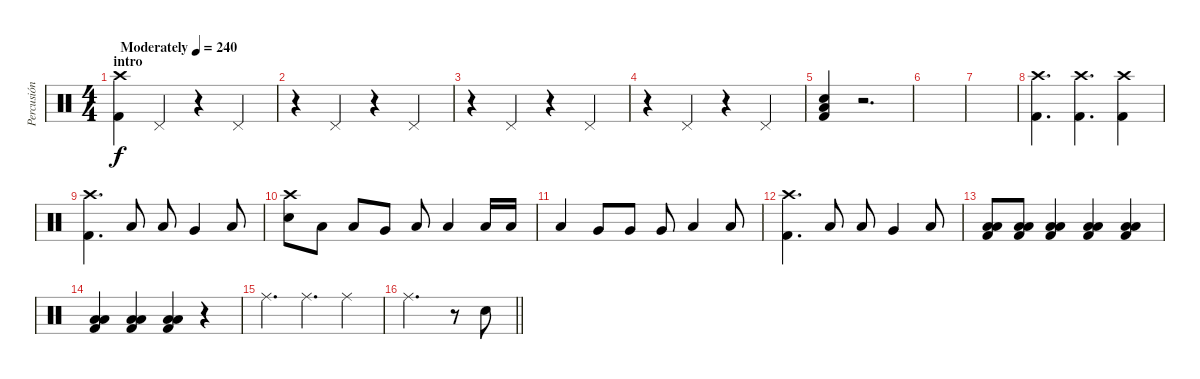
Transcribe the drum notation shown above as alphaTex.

\track ("Percusión" "Percusión") {instrument percussion}
\staff {score}
\articulation defaults
\ts (4 4)
\section ("" "intro")
\tempo (240 "Moderately")
\clef neutral
\ks c
("Crash high (hit)" "Kick (hit) 2").4{dy f} "Pedal Hi-Hat (hit)".4 r.4 "Pedal Hi-Hat (hit)".4 |
r.4 "Pedal Hi-Hat (hit)".4 r.4 "Pedal Hi-Hat (hit)".4 |
r.4 "Pedal Hi-Hat (hit)".4 r.4 "Pedal Hi-Hat (hit)".4 |
r.4 "Pedal Hi-Hat (hit)".4 r.4 "Pedal Hi-Hat (hit)".4 |
("Electric Snare (hit)" "Low Floor Tom (hit)" "Kick (hit) 2").4 r.2{d} |
|
|
("Crash high (hit)" "Kick (hit) 2").4{d} ("Crash high (hit)" "Kick (hit) 2").4{d} ("Crash high (hit)" "Kick (hit) 2").4 |
("Crash high (hit)" "Kick (hit) 2").4{d} "Low Tom (hit)".8 "Low Tom (hit)".8 "Very Low Tom (hit)".4 "Low Floor Tom (hit)".8 |
("Crash high (hit)" "Electric Snare (hit)").8 "Low Tom (hit)".8 "Low Tom (hit)".8 "Very Low Tom (hit)".8 "Low Floor Tom (hit)".8 "Low Floor Tom (hit)".4 "Low Floor Tom (hit)".16 "Low Floor Tom (hit)".16 |
"Low Tom (hit)".4 "Very Low Tom (hit)".8 "Very Low Tom (hit)".8 "Very Low Tom (hit)".8 "Low Floor Tom (hit)".4 "Low Floor Tom (hit)".8 |
("Crash high (hit)" "Kick (hit) 2").4{d} "Low Tom (hit)".8 "Low Tom (hit)".8 "Very Low Tom (hit)".4 "Low Floor Tom (hit)".8 |
("Low Tom (hit)" "Low Floor Tom (hit)" "Kick (hit) 2").8 ("Low Tom (hit)" "Low Floor Tom (hit)" "Kick (hit) 2").8 ("Low Tom (hit)" "Low Floor Tom (hit)" "Kick (hit) 2").4 ("Low Tom (hit)" "Low Floor Tom (hit)" "Kick (hit) 2").4 ("Low Tom (hit)" "Low Floor Tom (hit)" "Kick (hit) 2").4 |
("Low Tom (hit)" "Low Floor Tom (hit)" "Kick (hit) 2").4 ("Low Tom (hit)" "Low Floor Tom (hit)" "Kick (hit) 2").4 ("Low Tom (hit)" "Low Floor Tom (hit)" "Kick (hit) 2").4 r.4 |
"Ride (middle)".4{d} "Ride (middle)".4{d} "Ride (middle)".4 |
\barLineRight lightlight "Ride (middle)".2{d}
r.8 "Electric Snare (hit)".8
